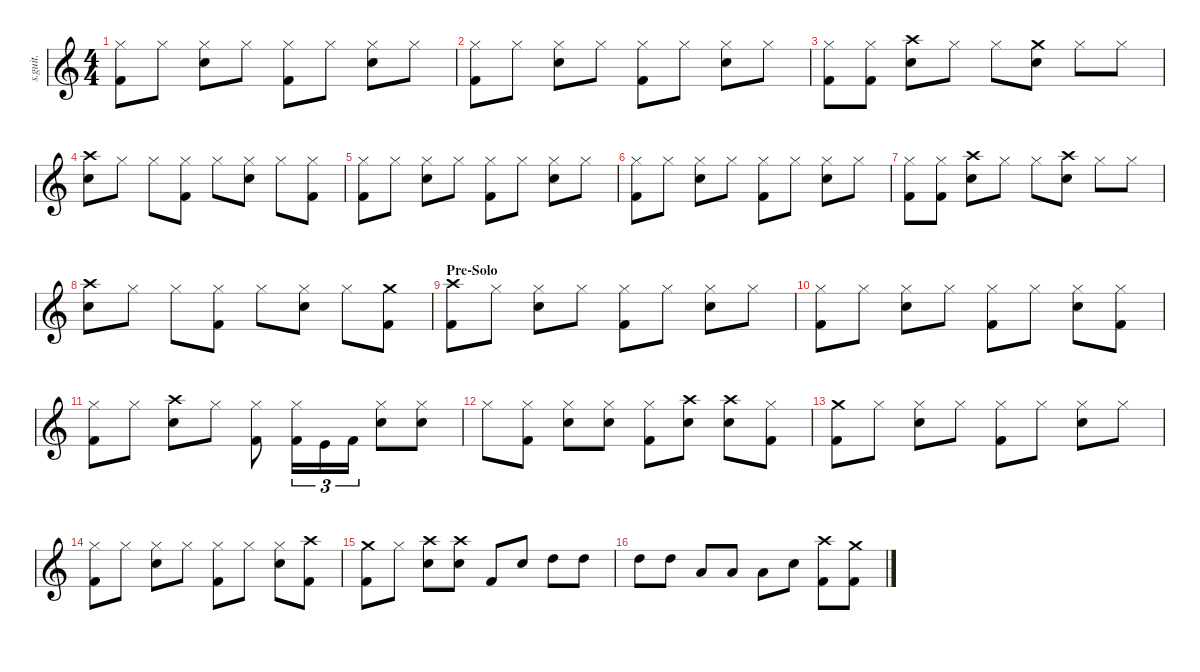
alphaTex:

\defaultSystemsLayout 4
\hideDynamics
\bracketExtendMode nobrackets
\track ("Drumkit" "s.guit.") {instrument percussion}
\staff {score}
\articulation defaults
\ts (4 4)
\tempo (130 hide)
\clef g2
\ks c
("Hi-Hat (closed)" "Kick (hit) 2").8{lyrics (0 "") lyrics (1 "") lyrics (2 "") lyrics (3 "") lyrics (4 "") dy f} "Hi-Hat (closed)".8{lyrics (0 "") lyrics (1 "") lyrics (2 "") lyrics (3 "") lyrics (4 "")} ("Hi-Hat (closed)" "Snare (hit) 2").8{lyrics (0 "") lyrics (1 "") lyrics (2 "") lyrics (3 "") lyrics (4 "")} "Hi-Hat (closed)".8{lyrics (0 "") lyrics (1 "") lyrics (2 "") lyrics (3 "") lyrics (4 "")} ("Hi-Hat (closed)" "Kick (hit) 2").8{lyrics (0 "") lyrics (1 "") lyrics (2 "") lyrics (3 "") lyrics (4 "")} "Hi-Hat (closed)".8{lyrics (0 "") lyrics (1 "") lyrics (2 "") lyrics (3 "") lyrics (4 "")} ("Hi-Hat (closed)" "Snare (hit) 2").8{lyrics (0 "") lyrics (1 "") lyrics (2 "") lyrics (3 "") lyrics (4 "")} "Hi-Hat (closed)".8{lyrics (0 "") lyrics (1 "") lyrics (2 "") lyrics (3 "") lyrics (4 "")} |
("Hi-Hat (closed)" "Kick (hit) 2").8{lyrics (0 "") lyrics (1 "") lyrics (2 "") lyrics (3 "") lyrics (4 "")} "Hi-Hat (closed)".8{lyrics (0 "") lyrics (1 "") lyrics (2 "") lyrics (3 "") lyrics (4 "")} ("Hi-Hat (closed)" "Snare (hit) 2").8{lyrics (0 "") lyrics (1 "") lyrics (2 "") lyrics (3 "") lyrics (4 "")} "Hi-Hat (closed)".8{lyrics (0 "") lyrics (1 "") lyrics (2 "") lyrics (3 "") lyrics (4 "")} ("Hi-Hat (closed)" "Kick (hit) 2").8{lyrics (0 "") lyrics (1 "") lyrics (2 "") lyrics (3 "") lyrics (4 "")} "Hi-Hat (closed)".8{lyrics (0 "") lyrics (1 "") lyrics (2 "") lyrics (3 "") lyrics (4 "")} ("Hi-Hat (closed)" "Snare (hit) 2").8{lyrics (0 "") lyrics (1 "") lyrics (2 "") lyrics (3 "") lyrics (4 "")} "Hi-Hat (closed)".8{lyrics (0 "") lyrics (1 "") lyrics (2 "") lyrics (3 "") lyrics (4 "")} |
("Hi-Hat (closed)" "Kick (hit) 2").8{lyrics (0 "") lyrics (1 "") lyrics (2 "") lyrics (3 "") lyrics (4 "")} ("Hi-Hat (closed)" "Kick (hit) 2").8{lyrics (0 "") lyrics (1 "") lyrics (2 "") lyrics (3 "") lyrics (4 "")} ("Crash high (hit)" "Snare (hit) 2").8{lyrics (0 "") lyrics (1 "") lyrics (2 "") lyrics (3 "") lyrics (4 "")} "Hi-Hat (closed)".8{lyrics (0 "") lyrics (1 "") lyrics (2 "") lyrics (3 "") lyrics (4 "")} "Hi-Hat (closed)".8{lyrics (0 "") lyrics (1 "") lyrics (2 "") lyrics (3 "") lyrics (4 "")} ("Crash medium (hit)" "Snare (hit) 2").8{lyrics (0 "") lyrics (1 "") lyrics (2 "") lyrics (3 "") lyrics (4 "")} "Hi-Hat (closed)".8{lyrics (0 "") lyrics (1 "") lyrics (2 "") lyrics (3 "") lyrics (4 "")} "Hi-Hat (closed)".8{lyrics (0 "") lyrics (1 "") lyrics (2 "") lyrics (3 "") lyrics (4 "")} |
("Crash high (hit)" "Snare (hit) 2").8{lyrics (0 "") lyrics (1 "") lyrics (2 "") lyrics (3 "") lyrics (4 "")} "Hi-Hat (closed)".8{lyrics (0 "") lyrics (1 "") lyrics (2 "") lyrics (3 "") lyrics (4 "")} "Hi-Hat (closed)".8{lyrics (0 "") lyrics (1 "") lyrics (2 "") lyrics (3 "") lyrics (4 "")} ("Hi-Hat (closed)" "Kick (hit) 2").8{lyrics (0 "") lyrics (1 "") lyrics (2 "") lyrics (3 "") lyrics (4 "")} "Hi-Hat (closed)".8{lyrics (0 "") lyrics (1 "") lyrics (2 "") lyrics (3 "") lyrics (4 "")} ("Hi-Hat (closed)" "Snare (hit) 2").8{lyrics (0 "") lyrics (1 "") lyrics (2 "") lyrics (3 "") lyrics (4 "")} "Hi-Hat (closed)".8{lyrics (0 "") lyrics (1 "") lyrics (2 "") lyrics (3 "") lyrics (4 "")} ("Hi-Hat (closed)" "Kick (hit) 2").8{lyrics (0 "") lyrics (1 "") lyrics (2 "") lyrics (3 "") lyrics (4 "")} |
("Hi-Hat (closed)" "Kick (hit) 2").8{lyrics (0 "") lyrics (1 "") lyrics (2 "") lyrics (3 "") lyrics (4 "")} "Hi-Hat (closed)".8{lyrics (0 "") lyrics (1 "") lyrics (2 "") lyrics (3 "") lyrics (4 "")} ("Hi-Hat (closed)" "Snare (hit) 2").8{lyrics (0 "") lyrics (1 "") lyrics (2 "") lyrics (3 "") lyrics (4 "")} "Hi-Hat (closed)".8{lyrics (0 "") lyrics (1 "") lyrics (2 "") lyrics (3 "") lyrics (4 "")} ("Hi-Hat (closed)" "Kick (hit) 2").8{lyrics (0 "") lyrics (1 "") lyrics (2 "") lyrics (3 "") lyrics (4 "")} "Hi-Hat (closed)".8{lyrics (0 "") lyrics (1 "") lyrics (2 "") lyrics (3 "") lyrics (4 "")} ("Hi-Hat (closed)" "Snare (hit) 2").8{lyrics (0 "") lyrics (1 "") lyrics (2 "") lyrics (3 "") lyrics (4 "")} "Hi-Hat (closed)".8{lyrics (0 "") lyrics (1 "") lyrics (2 "") lyrics (3 "") lyrics (4 "")} |
("Hi-Hat (closed)" "Kick (hit) 2").8{lyrics (0 "") lyrics (1 "") lyrics (2 "") lyrics (3 "") lyrics (4 "")} "Hi-Hat (closed)".8{lyrics (0 "") lyrics (1 "") lyrics (2 "") lyrics (3 "") lyrics (4 "")} ("Hi-Hat (closed)" "Snare (hit) 2").8{lyrics (0 "") lyrics (1 "") lyrics (2 "") lyrics (3 "") lyrics (4 "")} "Hi-Hat (closed)".8{lyrics (0 "") lyrics (1 "") lyrics (2 "") lyrics (3 "") lyrics (4 "")} ("Hi-Hat (closed)" "Kick (hit) 2").8{lyrics (0 "") lyrics (1 "") lyrics (2 "") lyrics (3 "") lyrics (4 "")} "Hi-Hat (closed)".8{lyrics (0 "") lyrics (1 "") lyrics (2 "") lyrics (3 "") lyrics (4 "")} ("Hi-Hat (closed)" "Snare (hit) 2").8{lyrics (0 "") lyrics (1 "") lyrics (2 "") lyrics (3 "") lyrics (4 "")} "Hi-Hat (closed)".8{lyrics (0 "") lyrics (1 "") lyrics (2 "") lyrics (3 "") lyrics (4 "")} |
("Hi-Hat (closed)" "Kick (hit) 2").8{lyrics (0 "") lyrics (1 "") lyrics (2 "") lyrics (3 "") lyrics (4 "")} ("Hi-Hat (closed)" "Kick (hit) 2").8{lyrics (0 "") lyrics (1 "") lyrics (2 "") lyrics (3 "") lyrics (4 "")} ("Crash high (hit)" "Snare (hit) 2").8{lyrics (0 "") lyrics (1 "") lyrics (2 "") lyrics (3 "") lyrics (4 "")} "Hi-Hat (closed)".8{lyrics (0 "") lyrics (1 "") lyrics (2 "") lyrics (3 "") lyrics (4 "")} "Hi-Hat (closed)".8{lyrics (0 "") lyrics (1 "") lyrics (2 "") lyrics (3 "") lyrics (4 "")} ("Crash high (hit)" "Snare (hit) 2").8{lyrics (0 "") lyrics (1 "") lyrics (2 "") lyrics (3 "") lyrics (4 "")} "Hi-Hat (closed)".8{lyrics (0 "") lyrics (1 "") lyrics (2 "") lyrics (3 "") lyrics (4 "")} "Hi-Hat (closed)".8{lyrics (0 "") lyrics (1 "") lyrics (2 "") lyrics (3 "") lyrics (4 "")} |
("Crash high (hit)" "Snare (hit) 2").8{lyrics (0 "") lyrics (1 "") lyrics (2 "") lyrics (3 "") lyrics (4 "")} "Hi-Hat (closed)".8{lyrics (0 "") lyrics (1 "") lyrics (2 "") lyrics (3 "") lyrics (4 "")} "Hi-Hat (closed)".8{lyrics (0 "") lyrics (1 "") lyrics (2 "") lyrics (3 "") lyrics (4 "")} ("Hi-Hat (closed)" "Kick (hit) 2").8{lyrics (0 "") lyrics (1 "") lyrics (2 "") lyrics (3 "") lyrics (4 "")} "Hi-Hat (closed)".8{lyrics (0 "") lyrics (1 "") lyrics (2 "") lyrics (3 "") lyrics (4 "")} ("Hi-Hat (closed)" "Snare (hit) 2").8{lyrics (0 "") lyrics (1 "") lyrics (2 "") lyrics (3 "") lyrics (4 "")} "Hi-Hat (closed)".8{lyrics (0 "") lyrics (1 "") lyrics (2 "") lyrics (3 "") lyrics (4 "")} ("Crash medium (hit)" "Kick (hit) 2").8{lyrics (0 "") lyrics (1 "") lyrics (2 "") lyrics (3 "") lyrics (4 "")} |
\section ("" "Pre-Solo")
("Crash high (hit)" "Kick (hit) 2").8{lyrics (0 "") lyrics (1 "") lyrics (2 "") lyrics (3 "") lyrics (4 "")} "Hi-Hat (closed)".8{lyrics (0 "") lyrics (1 "") lyrics (2 "") lyrics (3 "") lyrics (4 "")} ("Hi-Hat (closed)" "Snare (hit) 2").8{lyrics (0 "") lyrics (1 "") lyrics (2 "") lyrics (3 "") lyrics (4 "")} "Hi-Hat (closed)".8{lyrics (0 "") lyrics (1 "") lyrics (2 "") lyrics (3 "") lyrics (4 "")} ("Hi-Hat (closed)" "Kick (hit) 2").8{lyrics (0 "") lyrics (1 "") lyrics (2 "") lyrics (3 "") lyrics (4 "")} "Hi-Hat (closed)".8{lyrics (0 "") lyrics (1 "") lyrics (2 "") lyrics (3 "") lyrics (4 "")} ("Hi-Hat (closed)" "Snare (hit) 2").8{lyrics (0 "") lyrics (1 "") lyrics (2 "") lyrics (3 "") lyrics (4 "")} "Hi-Hat (closed)".8{lyrics (0 "") lyrics (1 "") lyrics (2 "") lyrics (3 "") lyrics (4 "")} |
("Hi-Hat (closed)" "Kick (hit) 2").8{lyrics (0 "") lyrics (1 "") lyrics (2 "") lyrics (3 "") lyrics (4 "")} "Hi-Hat (closed)".8{lyrics (0 "") lyrics (1 "") lyrics (2 "") lyrics (3 "") lyrics (4 "")} ("Hi-Hat (closed)" "Snare (hit) 2").8{lyrics (0 "") lyrics (1 "") lyrics (2 "") lyrics (3 "") lyrics (4 "")} "Hi-Hat (closed)".8{lyrics (0 "") lyrics (1 "") lyrics (2 "") lyrics (3 "") lyrics (4 "")} ("Hi-Hat (closed)" "Kick (hit) 2").8{lyrics (0 "") lyrics (1 "") lyrics (2 "") lyrics (3 "") lyrics (4 "")} "Hi-Hat (closed)".8{lyrics (0 "") lyrics (1 "") lyrics (2 "") lyrics (3 "") lyrics (4 "")} ("Hi-Hat (closed)" "Snare (hit) 2").8{lyrics (0 "") lyrics (1 "") lyrics (2 "") lyrics (3 "") lyrics (4 "")} ("Hi-Hat (closed)" "Kick (hit) 2").8{lyrics (0 "") lyrics (1 "") lyrics (2 "") lyrics (3 "") lyrics (4 "")} |
("Hi-Hat (closed)" "Kick (hit) 2").8{lyrics (0 "") lyrics (1 "") lyrics (2 "") lyrics (3 "") lyrics (4 "")} "Hi-Hat (closed)".8{lyrics (0 "") lyrics (1 "") lyrics (2 "") lyrics (3 "") lyrics (4 "")} ("Crash high (hit)" "Snare (hit) 2").8{lyrics (0 "") lyrics (1 "") lyrics (2 "") lyrics (3 "") lyrics (4 "")} "Hi-Hat (closed)".8{lyrics (0 "") lyrics (1 "") lyrics (2 "") lyrics (3 "") lyrics (4 "")} ("Hi-Hat (closed)" "Kick (hit) 2").8{lyrics (0 "") lyrics (1 "") lyrics (2 "") lyrics (3 "") lyrics (4 "")} ("Hi-Hat (closed)" "Kick (hit) 2").16{tu (3 2) lyrics (0 "") lyrics (1 "") lyrics (2 "") lyrics (3 "") lyrics (4 "")} "Kick (hit)".16{tu (3 2) lyrics (0 "") lyrics (1 "") lyrics (2 "") lyrics (3 "") lyrics (4 "")} "Kick (hit) 2".16{tu (3 2) lyrics (0 "") lyrics (1 "") lyrics (2 "") lyrics (3 "") lyrics (4 "")} ("Hi-Hat (closed)" "Snare (hit) 2").8{lyrics (0 "") lyrics (1 "") lyrics (2 "") lyrics (3 "") lyrics (4 "")} ("Hi-Hat (closed)" "Snare (hit) 2").8{lyrics (0 "") lyrics (1 "") lyrics (2 "") lyrics (3 "") lyrics (4 "")} |
"Hi-Hat (closed)".8{lyrics (0 "") lyrics (1 "") lyrics (2 "") lyrics (3 "") lyrics (4 "")} ("Hi-Hat (closed)" "Kick (hit) 2").8{lyrics (0 "") lyrics (1 "") lyrics (2 "") lyrics (3 "") lyrics (4 "")} ("Hi-Hat (closed)" "Snare (hit) 2").8{lyrics (0 "") lyrics (1 "") lyrics (2 "") lyrics (3 "") lyrics (4 "")} ("Hi-Hat (closed)" "Snare (hit) 2").8{lyrics (0 "") lyrics (1 "") lyrics (2 "") lyrics (3 "") lyrics (4 "")} ("Hi-Hat (closed)" "Kick (hit) 2").8{lyrics (0 "") lyrics (1 "") lyrics (2 "") lyrics (3 "") lyrics (4 "")} ("Crash high (hit)" "Snare (hit) 2").8{lyrics (0 "") lyrics (1 "") lyrics (2 "") lyrics (3 "") lyrics (4 "")} ("Crash high (hit)" "Snare (hit) 2").8{lyrics (0 "") lyrics (1 "") lyrics (2 "") lyrics (3 "") lyrics (4 "")} ("Hi-Hat (closed)" "Kick (hit) 2").8{lyrics (0 "") lyrics (1 "") lyrics (2 "") lyrics (3 "") lyrics (4 "")} |
("Crash medium (hit)" "Kick (hit) 2").8{lyrics (0 "") lyrics (1 "") lyrics (2 "") lyrics (3 "") lyrics (4 "")} "Hi-Hat (closed)".8{lyrics (0 "") lyrics (1 "") lyrics (2 "") lyrics (3 "") lyrics (4 "")} ("Hi-Hat (closed)" "Snare (hit) 2").8{lyrics (0 "") lyrics (1 "") lyrics (2 "") lyrics (3 "") lyrics (4 "")} "Hi-Hat (closed)".8{lyrics (0 "") lyrics (1 "") lyrics (2 "") lyrics (3 "") lyrics (4 "")} ("Hi-Hat (closed)" "Kick (hit) 2").8{lyrics (0 "") lyrics (1 "") lyrics (2 "") lyrics (3 "") lyrics (4 "")} "Hi-Hat (closed)".8{lyrics (0 "") lyrics (1 "") lyrics (2 "") lyrics (3 "") lyrics (4 "")} ("Hi-Hat (closed)" "Snare (hit) 2").8{lyrics (0 "") lyrics (1 "") lyrics (2 "") lyrics (3 "") lyrics (4 "")} "Hi-Hat (closed)".8{lyrics (0 "") lyrics (1 "") lyrics (2 "") lyrics (3 "") lyrics (4 "")} |
("Hi-Hat (closed)" "Kick (hit) 2").8{lyrics (0 "") lyrics (1 "") lyrics (2 "") lyrics (3 "") lyrics (4 "")} "Hi-Hat (closed)".8{lyrics (0 "") lyrics (1 "") lyrics (2 "") lyrics (3 "") lyrics (4 "")} ("Hi-Hat (closed)" "Snare (hit) 2").8{lyrics (0 "") lyrics (1 "") lyrics (2 "") lyrics (3 "") lyrics (4 "")} "Hi-Hat (closed)".8{lyrics (0 "") lyrics (1 "") lyrics (2 "") lyrics (3 "") lyrics (4 "")} ("Hi-Hat (closed)" "Kick (hit) 2").8{lyrics (0 "") lyrics (1 "") lyrics (2 "") lyrics (3 "") lyrics (4 "")} "Hi-Hat (closed)".8{lyrics (0 "") lyrics (1 "") lyrics (2 "") lyrics (3 "") lyrics (4 "")} ("Hi-Hat (closed)" "Snare (hit) 2").8{lyrics (0 "") lyrics (1 "") lyrics (2 "") lyrics (3 "") lyrics (4 "")} ("Crash high (hit)" "Kick (hit) 2").8{lyrics (0 "") lyrics (1 "") lyrics (2 "") lyrics (3 "") lyrics (4 "")} |
("Crash medium (hit)" "Kick (hit) 2").8{lyrics (0 "") lyrics (1 "") lyrics (2 "") lyrics (3 "") lyrics (4 "")} "Hi-Hat (closed)".8{lyrics (0 "") lyrics (1 "") lyrics (2 "") lyrics (3 "") lyrics (4 "")} ("Crash high (hit)" "Snare (hit) 2").8{lyrics (0 "") lyrics (1 "") lyrics (2 "") lyrics (3 "") lyrics (4 "")} ("Crash high (hit)" "Snare (hit) 2").8{lyrics (0 "") lyrics (1 "") lyrics (2 "") lyrics (3 "") lyrics (4 "")} "Kick (hit) 2".8{lyrics (0 "") lyrics (1 "") lyrics (2 "") lyrics (3 "") lyrics (4 "")} "Snare (hit) 2".8{lyrics (0 "") lyrics (1 "") lyrics (2 "") lyrics (3 "") lyrics (4 "")} "High Tom (hit)".8{lyrics (0 "") lyrics (1 "") lyrics (2 "") lyrics (3 "") lyrics (4 "")} "High Tom (hit)".8{lyrics (0 "") lyrics (1 "") lyrics (2 "") lyrics (3 "") lyrics (4 "")} |
"High Tom (hit)".8{lyrics (0 "") lyrics (1 "") lyrics (2 "") lyrics (3 "") lyrics (4 "")} "High Tom (hit)".8{lyrics (0 "") lyrics (1 "") lyrics (2 "") lyrics (3 "") lyrics (4 "")} "Low Tom (hit)".8{lyrics (0 "") lyrics (1 "") lyrics (2 "") lyrics (3 "") lyrics (4 "")} "Low Tom (hit)".8{lyrics (0 "") lyrics (1 "") lyrics (2 "") lyrics (3 "") lyrics (4 "")} "Low Floor Tom (hit)".8{lyrics (0 "") lyrics (1 "") lyrics (2 "") lyrics (3 "") lyrics (4 "")} "Snare (hit) 2".8{lyrics (0 "") lyrics (1 "") lyrics (2 "") lyrics (3 "") lyrics (4 "")} ("Crash high (hit)" "Kick (hit) 2").8{lyrics (0 "") lyrics (1 "") lyrics (2 "") lyrics (3 "") lyrics (4 "")} ("Crash medium (hit)" "Kick (hit) 2").8{lyrics (0 "") lyrics (1 "") lyrics (2 "") lyrics (3 "") lyrics (4 "")}
